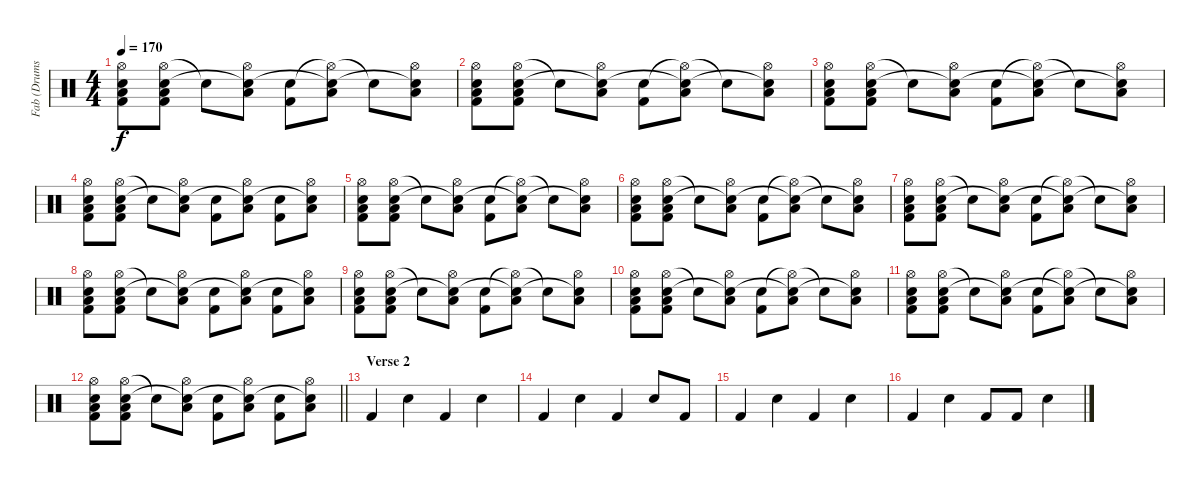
\track ("Fab (Drums)" "Fab (Drums") {instrument percussion}
\staff {score}
\articulation defaults
\ts (4 4)
\tempo 170
\clef neutral
\ks c
("Hi-Hat (open)" "Low Floor Tom (hit)" "Electric Snare (hit)" "Kick (hit) 2").8{dy f} ("Hi-Hat (open)" "Low Floor Tom (hit)" "Electric Snare (hit)" "Kick (hit) 2").8 "Snare (hit)"{t}.8 ("Hi-Hat (open)" "Low Floor Tom (hit)" "Snare (hit)"{t}).8 ("Electric Snare (hit)" "Kick (hit) 2").8 ("Hi-Hat (open)"{t} "Low Floor Tom (hit)" "Snare (hit)"{t}).8 "Snare (hit)"{t}.8 ("Hi-Hat (open)" "Low Floor Tom (hit)" "Snare (hit)"{t}).8 |
("Hi-Hat (open)" "Low Floor Tom (hit)" "Electric Snare (hit)" "Kick (hit) 2").8 ("Hi-Hat (open)" "Low Floor Tom (hit)" "Electric Snare (hit)" "Kick (hit) 2").8 "Snare (hit)"{t}.8 ("Hi-Hat (open)" "Low Floor Tom (hit)" "Snare (hit)"{t}).8 ("Electric Snare (hit)" "Kick (hit) 2").8 ("Hi-Hat (open)"{t} "Low Floor Tom (hit)" "Snare (hit)"{t}).8 "Snare (hit)"{t}.8 ("Hi-Hat (open)" "Low Floor Tom (hit)" "Snare (hit)"{t}).8 |
("Hi-Hat (open)" "Low Floor Tom (hit)" "Electric Snare (hit)" "Kick (hit) 2").8 ("Hi-Hat (open)" "Low Floor Tom (hit)" "Electric Snare (hit)" "Kick (hit) 2").8 "Snare (hit)"{t}.8 ("Hi-Hat (open)" "Low Floor Tom (hit)" "Snare (hit)"{t}).8 ("Electric Snare (hit)" "Kick (hit) 2").8 ("Hi-Hat (open)"{t} "Low Floor Tom (hit)" "Snare (hit)"{t}).8 "Snare (hit)"{t}.8 ("Hi-Hat (open)" "Low Floor Tom (hit)" "Snare (hit)"{t}).8 |
("Hi-Hat (open)" "Low Floor Tom (hit)" "Electric Snare (hit)" "Kick (hit) 2").8 ("Hi-Hat (open)" "Low Floor Tom (hit)" "Electric Snare (hit)" "Kick (hit) 2").8 "Snare (hit)"{t}.8 ("Hi-Hat (open)" "Low Floor Tom (hit)" "Snare (hit)"{t}).8 ("Electric Snare (hit)" "Kick (hit) 2").8 ("Hi-Hat (open)" "Low Floor Tom (hit)" "Snare (hit)"{t}).8 ("Electric Snare (hit)" "Kick (hit) 2").8 ("Hi-Hat (open)" "Low Floor Tom (hit)" "Snare (hit)"{t}).8 |
("Hi-Hat (open)" "Low Floor Tom (hit)" "Electric Snare (hit)" "Kick (hit) 2").8 ("Hi-Hat (open)" "Low Floor Tom (hit)" "Electric Snare (hit)" "Kick (hit) 2").8 "Snare (hit)"{t}.8 ("Hi-Hat (open)" "Low Floor Tom (hit)" "Snare (hit)"{t}).8 ("Electric Snare (hit)" "Kick (hit) 2").8 ("Hi-Hat (open)"{t} "Low Floor Tom (hit)" "Snare (hit)"{t}).8 "Snare (hit)"{t}.8 ("Hi-Hat (open)" "Low Floor Tom (hit)" "Snare (hit)"{t}).8 |
("Hi-Hat (open)" "Low Floor Tom (hit)" "Electric Snare (hit)" "Kick (hit) 2").8 ("Hi-Hat (open)" "Low Floor Tom (hit)" "Electric Snare (hit)" "Kick (hit) 2").8 "Snare (hit)"{t}.8 ("Hi-Hat (open)" "Low Floor Tom (hit)" "Snare (hit)"{t}).8 ("Electric Snare (hit)" "Kick (hit) 2").8 ("Hi-Hat (open)"{t} "Low Floor Tom (hit)" "Snare (hit)"{t}).8 "Snare (hit)"{t}.8 ("Hi-Hat (open)" "Low Floor Tom (hit)" "Snare (hit)"{t}).8 |
("Hi-Hat (open)" "Low Floor Tom (hit)" "Electric Snare (hit)" "Kick (hit) 2").8 ("Hi-Hat (open)" "Low Floor Tom (hit)" "Electric Snare (hit)" "Kick (hit) 2").8 "Snare (hit)"{t}.8 ("Hi-Hat (open)" "Low Floor Tom (hit)" "Snare (hit)"{t}).8 ("Electric Snare (hit)" "Kick (hit) 2").8 ("Hi-Hat (open)"{t} "Low Floor Tom (hit)" "Snare (hit)"{t}).8 "Snare (hit)"{t}.8 ("Hi-Hat (open)" "Low Floor Tom (hit)" "Snare (hit)"{t}).8 |
("Hi-Hat (open)" "Low Floor Tom (hit)" "Electric Snare (hit)" "Kick (hit) 2").8 ("Hi-Hat (open)" "Low Floor Tom (hit)" "Electric Snare (hit)" "Kick (hit) 2").8 "Snare (hit)"{t}.8 ("Hi-Hat (open)" "Low Floor Tom (hit)" "Snare (hit)"{t}).8 ("Electric Snare (hit)" "Kick (hit) 2").8 ("Hi-Hat (open)" "Low Floor Tom (hit)" "Snare (hit)"{t}).8 ("Electric Snare (hit)" "Kick (hit) 2").8 ("Hi-Hat (open)" "Low Floor Tom (hit)" "Snare (hit)"{t}).8 |
("Hi-Hat (open)" "Low Floor Tom (hit)" "Electric Snare (hit)" "Kick (hit) 2").8 ("Hi-Hat (open)" "Low Floor Tom (hit)" "Electric Snare (hit)" "Kick (hit) 2").8 "Snare (hit)"{t}.8 ("Hi-Hat (open)" "Low Floor Tom (hit)" "Snare (hit)"{t}).8 ("Electric Snare (hit)" "Kick (hit) 2").8 ("Hi-Hat (open)"{t} "Low Floor Tom (hit)" "Snare (hit)"{t}).8 "Snare (hit)"{t}.8 ("Hi-Hat (open)" "Low Floor Tom (hit)" "Snare (hit)"{t}).8 |
("Hi-Hat (open)" "Low Floor Tom (hit)" "Electric Snare (hit)" "Kick (hit) 2").8 ("Hi-Hat (open)" "Low Floor Tom (hit)" "Electric Snare (hit)" "Kick (hit) 2").8 "Snare (hit)"{t}.8 ("Hi-Hat (open)" "Low Floor Tom (hit)" "Snare (hit)"{t}).8 ("Electric Snare (hit)" "Kick (hit) 2").8 ("Hi-Hat (open)"{t} "Low Floor Tom (hit)" "Snare (hit)"{t}).8 "Snare (hit)"{t}.8 ("Hi-Hat (open)" "Low Floor Tom (hit)" "Snare (hit)"{t}).8 |
("Hi-Hat (open)" "Low Floor Tom (hit)" "Electric Snare (hit)" "Kick (hit) 2").8 ("Hi-Hat (open)" "Low Floor Tom (hit)" "Electric Snare (hit)" "Kick (hit) 2").8 "Snare (hit)"{t}.8 ("Hi-Hat (open)" "Low Floor Tom (hit)" "Snare (hit)"{t}).8 ("Electric Snare (hit)" "Kick (hit) 2").8 ("Hi-Hat (open)"{t} "Low Floor Tom (hit)" "Snare (hit)"{t}).8 "Snare (hit)"{t}.8 ("Hi-Hat (open)" "Low Floor Tom (hit)" "Snare (hit)"{t}).8 |
\barLineRight lightlight
("Hi-Hat (open)" "Low Floor Tom (hit)" "Electric Snare (hit)" "Kick (hit) 2").8 ("Hi-Hat (open)" "Low Floor Tom (hit)" "Electric Snare (hit)" "Kick (hit) 2").8 "Snare (hit)"{t}.8 ("Hi-Hat (open)" "Low Floor Tom (hit)" "Snare (hit)"{t}).8 ("Electric Snare (hit)" "Kick (hit) 2").8 ("Hi-Hat (open)" "Low Floor Tom (hit)" "Snare (hit)"{t}).8 ("Electric Snare (hit)" "Kick (hit) 2").8 ("Hi-Hat (open)" "Low Floor Tom (hit)" "Snare (hit)"{t}).8 |
\section ("" "Verse 2")
"Kick (hit) 2".4 "Electric Snare (hit)".4 "Kick (hit) 2".4 "Electric Snare (hit)".4 |
"Kick (hit) 2".4 "Electric Snare (hit)".4 "Kick (hit) 2".4 "Electric Snare (hit)".8 "Kick (hit) 2".8 |
"Kick (hit) 2".4 "Electric Snare (hit)".4 "Kick (hit) 2".4 "Electric Snare (hit)".4 |
"Kick (hit) 2".4 "Electric Snare (hit)".4 "Kick (hit) 2".8 "Kick (hit) 2".8 "Electric Snare (hit)".4
